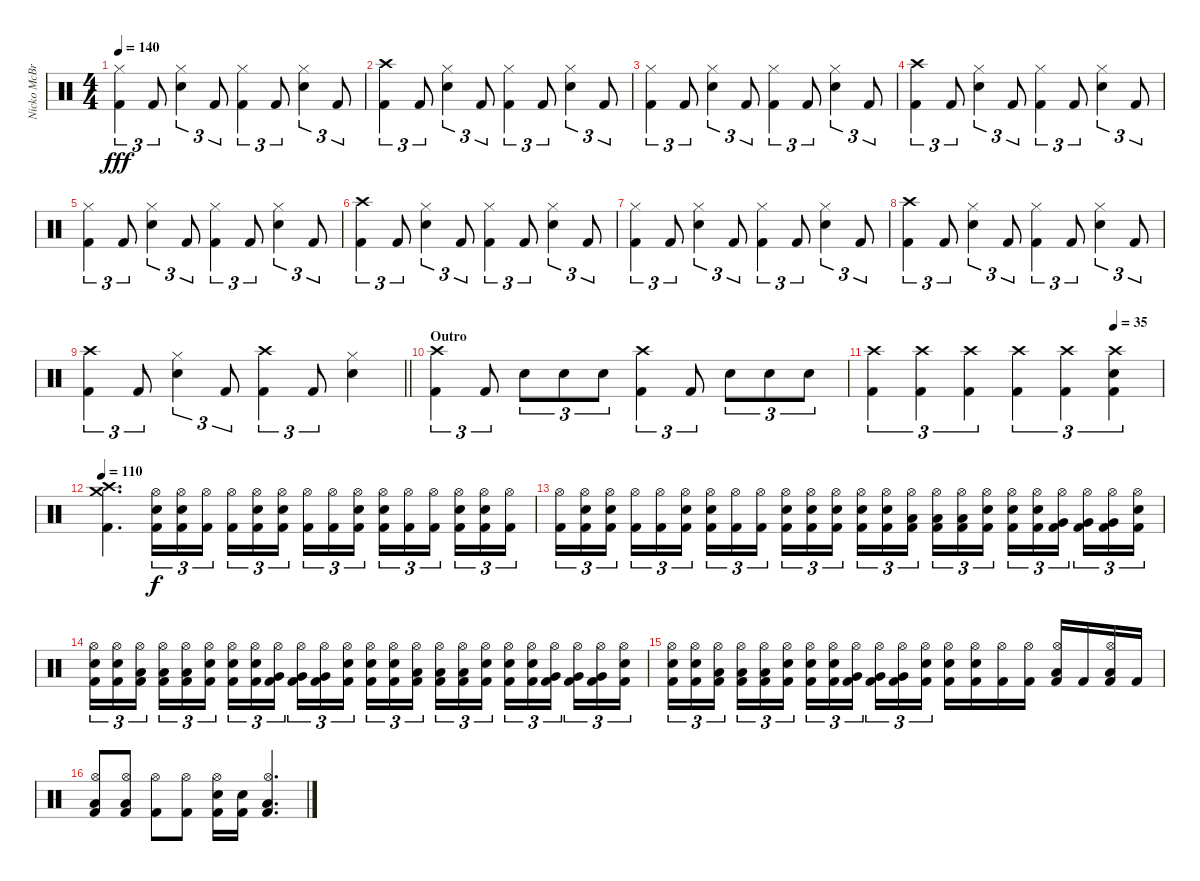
\track ("Nicko McBrain" "Nicko McBr") {instrument percussion}
\staff {score}
\articulation defaults
\ts (4 4)
\tempo 140
\clef neutral
\ks c
("Kick (hit) 2" "Hi-Hat (closed)").4{tu (3 2) dy fff} "Kick (hit) 2".8{tu (3 2)} ("Hi-Hat (closed)" "Snare (hit) 2").4{tu (3 2)} "Kick (hit) 2".8{tu (3 2)} ("Kick (hit) 2" "Hi-Hat (closed)").4{tu (3 2)} "Kick (hit) 2".8{tu (3 2)} ("Hi-Hat (closed)" "Snare (hit) 2").4{tu (3 2)} "Kick (hit) 2".8{tu (3 2)} |
("Crash high (hit)" "Kick (hit) 2").4{tu (3 2)} "Kick (hit) 2".8{tu (3 2)} ("Hi-Hat (closed)" "Snare (hit) 2").4{tu (3 2)} "Kick (hit) 2".8{tu (3 2)} ("Kick (hit) 2" "Hi-Hat (closed)").4{tu (3 2)} "Kick (hit) 2".8{tu (3 2)} ("Hi-Hat (closed)" "Snare (hit) 2").4{tu (3 2)} "Kick (hit) 2".8{tu (3 2)} |
("Kick (hit) 2" "Hi-Hat (closed)").4{tu (3 2)} "Kick (hit) 2".8{tu (3 2)} ("Hi-Hat (closed)" "Snare (hit) 2").4{tu (3 2)} "Kick (hit) 2".8{tu (3 2)} ("Kick (hit) 2" "Hi-Hat (closed)").4{tu (3 2)} "Kick (hit) 2".8{tu (3 2)} ("Hi-Hat (closed)" "Snare (hit) 2").4{tu (3 2)} "Kick (hit) 2".8{tu (3 2)} |
("Crash high (hit)" "Kick (hit) 2").4{tu (3 2)} "Kick (hit) 2".8{tu (3 2)} ("Hi-Hat (closed)" "Snare (hit) 2").4{tu (3 2)} "Kick (hit) 2".8{tu (3 2)} ("Kick (hit) 2" "Hi-Hat (closed)").4{tu (3 2)} "Kick (hit) 2".8{tu (3 2)} ("Hi-Hat (closed)" "Snare (hit) 2").4{tu (3 2)} "Kick (hit) 2".8{tu (3 2)} |
("Kick (hit) 2" "Hi-Hat (closed)").4{tu (3 2)} "Kick (hit) 2".8{tu (3 2)} ("Hi-Hat (closed)" "Snare (hit) 2").4{tu (3 2)} "Kick (hit) 2".8{tu (3 2)} ("Kick (hit) 2" "Hi-Hat (closed)").4{tu (3 2)} "Kick (hit) 2".8{tu (3 2)} ("Hi-Hat (closed)" "Snare (hit) 2").4{tu (3 2)} "Kick (hit) 2".8{tu (3 2)} |
("Crash high (hit)" "Kick (hit) 2").4{tu (3 2)} "Kick (hit) 2".8{tu (3 2)} ("Hi-Hat (closed)" "Snare (hit) 2").4{tu (3 2)} "Kick (hit) 2".8{tu (3 2)} ("Kick (hit) 2" "Hi-Hat (closed)").4{tu (3 2)} "Kick (hit) 2".8{tu (3 2)} ("Hi-Hat (closed)" "Snare (hit) 2").4{tu (3 2)} "Kick (hit) 2".8{tu (3 2)} |
("Kick (hit) 2" "Hi-Hat (closed)").4{tu (3 2)} "Kick (hit) 2".8{tu (3 2)} ("Hi-Hat (closed)" "Snare (hit) 2").4{tu (3 2)} "Kick (hit) 2".8{tu (3 2)} ("Kick (hit) 2" "Hi-Hat (closed)").4{tu (3 2)} "Kick (hit) 2".8{tu (3 2)} ("Hi-Hat (closed)" "Snare (hit) 2").4{tu (3 2)} "Kick (hit) 2".8{tu (3 2)} |
("Crash high (hit)" "Kick (hit) 2").4{tu (3 2)} "Kick (hit) 2".8{tu (3 2)} ("Hi-Hat (closed)" "Snare (hit) 2").4{tu (3 2)} "Kick (hit) 2".8{tu (3 2)} ("Kick (hit) 2" "Hi-Hat (closed)").4{tu (3 2)} "Kick (hit) 2".8{tu (3 2)} ("Hi-Hat (closed)" "Snare (hit) 2").4{tu (3 2)} "Kick (hit) 2".8{tu (3 2)} |
\barLineRight lightlight
("Kick (hit) 2" "Crash high (hit)").4{tu (3 2)} "Kick (hit) 2".8{tu (3 2)} ("Hi-Hat (closed)" "Snare (hit) 2").4{tu (3 2)} "Kick (hit) 2".8{tu (3 2)} ("Kick (hit) 2" "Crash high (hit)").4{tu (3 2)} "Kick (hit) 2".8{tu (3 2)} ("Hi-Hat (closed)" "Snare (hit) 2").4 |
\section ("" "Outro")
("Kick (hit) 2" "Crash high (hit)").4{tu (3 2)} "Kick (hit) 2".8{tu (3 2)} "Snare (hit) 2".8{tu (3 2)} "Snare (hit) 2".8{tu (3 2)} "Snare (hit) 2".8{tu (3 2)} ("Kick (hit) 2" "Crash high (hit)").4{tu (3 2)} "Kick (hit) 2".8{tu (3 2)} "Snare (hit) 2".8{tu (3 2)} "Snare (hit) 2".8{tu (3 2)} "Snare (hit) 2".8{tu (3 2)} |
\tempo (35 0.8333333333333334)
("Kick (hit) 2" "Crash high (hit)").4{tu (3 2)} ("Kick (hit) 2" "Crash high (hit)").4{tu (3 2)} ("Kick (hit) 2" "Crash high (hit)").4{tu (3 2)} ("Kick (hit) 2" "Crash high (hit)").4{tu (3 2)} ("Kick (hit) 2" "Crash high (hit)").4{tu (3 2)} ("Snare (hit) 2" "Crash high (hit)" "Kick (hit) 2").4{tu (3 2)} |
\tempo 110
("Kick (hit) 2" "Crash high (hit)" "Crash medium (hit)").4{d} ("Snare (hit) 2" "Hi-Hat (open)" "Kick (hit) 2").16{tu (3 2) dy f} ("Snare (hit) 2" "Hi-Hat (open)" "Kick (hit) 2").16{tu (3 2)} ("Hi-Hat (open)" "Kick (hit) 2").16{tu (3 2)} ("Hi-Hat (open)" "Kick (hit) 2").16{tu (3 2)} ("Snare (hit) 2" "Hi-Hat (open)" "Kick (hit) 2").16{tu (3 2)} ("Snare (hit) 2" "Hi-Hat (open)" "Kick (hit) 2").16{tu (3 2) beam splitsecondary} ("Hi-Hat (open)" "Kick (hit) 2").16{tu (3 2)} ("Hi-Hat (open)" "Kick (hit) 2").16{tu (3 2)} ("Snare (hit) 2" "Hi-Hat (open)" "Kick (hit) 2").16{tu (3 2)} ("Snare (hit) 2" "Hi-Hat (open)" "Kick (hit) 2").16{tu (3 2)} ("Hi-Hat (open)" "Kick (hit) 2").16{tu (3 2)} ("Hi-Hat (open)" "Kick (hit) 2").16{tu (3 2) beam splitsecondary} ("Snare (hit) 2" "Hi-Hat (open)" "Kick (hit) 2").16{tu (3 2)} ("Snare (hit) 2" "Hi-Hat (open)" "Kick (hit) 2").16{tu (3 2)} ("Hi-Hat (open)" "Kick (hit) 2").16{tu (3 2)} |
("Hi-Hat (open)" "Kick (hit) 2").16{tu (3 2)} ("Snare (hit) 2" "Hi-Hat (open)" "Kick (hit) 2").16{tu (3 2)} ("Snare (hit) 2" "Hi-Hat (open)" "Kick (hit) 2").16{tu (3 2) beam splitsecondary} ("Hi-Hat (open)" "Kick (hit) 2").16{tu (3 2)} ("Hi-Hat (open)" "Kick (hit) 2").16{tu (3 2)} ("Snare (hit) 2" "Hi-Hat (open)" "Kick (hit) 2").16{tu (3 2)} ("Snare (hit) 2" "Hi-Hat (open)" "Kick (hit) 2").16{tu (3 2)} ("Hi-Hat (open)" "Kick (hit) 2").16{tu (3 2)} ("Hi-Hat (open)" "Kick (hit) 2").16{tu (3 2) beam splitsecondary} ("Snare (hit) 2" "Hi-Hat (open)" "Kick (hit) 2").16{tu (3 2)} ("Snare (hit) 2" "Hi-Hat (open)" "Kick (hit) 2").16{tu (3 2)} ("Snare (hit) 2" "Hi-Hat (open)" "Kick (hit) 2").16{tu (3 2)} ("Snare (hit) 2" "Hi-Hat (open)" "Kick (hit) 2").16{tu (3 2)} ("Snare (hit) 2" "Hi-Hat (open)" "Kick (hit) 2").16{tu (3 2)} ("Low Tom (hit)" "Hi-Hat (open)" "Kick (hit) 2").16{tu (3 2) beam splitsecondary} ("Low Tom (hit)" "Hi-Hat (open)" "Kick (hit) 2").16{tu (3 2)} ("Low Tom (hit)" "Hi-Hat (open)" "Kick (hit) 2").16{tu (3 2)} ("Snare (hit) 2" "Hi-Hat (open)" "Kick (hit) 2").16{tu (3 2)} ("Snare (hit) 2" "Hi-Hat (open)" "Kick (hit) 2").16{tu (3 2)} ("Snare (hit) 2" "Hi-Hat (open)" "Kick (hit) 2").16{tu (3 2)} ("Very Low Tom (hit)" "Hi-Hat (open)" "Kick (hit) 2").16{tu (3 2) beam splitsecondary} ("Very Low Tom (hit)" "Hi-Hat (open)" "Kick (hit) 2").16{tu (3 2)} ("Very Low Tom (hit)" "Hi-Hat (open)" "Kick (hit) 2").16{tu (3 2)} ("Snare (hit) 2" "Hi-Hat (open)" "Kick (hit) 2").16{tu (3 2)} |
("Snare (hit) 2" "Hi-Hat (open)" "Kick (hit) 2").16{tu (3 2)} ("Snare (hit) 2" "Hi-Hat (open)" "Kick (hit) 2").16{tu (3 2)} ("Low Tom (hit)" "Hi-Hat (open)" "Kick (hit) 2").16{tu (3 2) beam splitsecondary} ("Low Tom (hit)" "Hi-Hat (open)" "Kick (hit) 2").16{tu (3 2)} ("Low Tom (hit)" "Hi-Hat (open)" "Kick (hit) 2").16{tu (3 2)} ("Snare (hit) 2" "Hi-Hat (open)" "Kick (hit) 2").16{tu (3 2)} ("Snare (hit) 2" "Hi-Hat (open)" "Kick (hit) 2").16{tu (3 2)} ("Snare (hit) 2" "Hi-Hat (open)" "Kick (hit) 2").16{tu (3 2)} ("Very Low Tom (hit)" "Hi-Hat (open)" "Kick (hit) 2").16{tu (3 2) beam splitsecondary} ("Very Low Tom (hit)" "Hi-Hat (open)" "Kick (hit) 2").16{tu (3 2)} ("Very Low Tom (hit)" "Hi-Hat (open)" "Kick (hit) 2").16{tu (3 2)} ("Snare (hit) 2" "Hi-Hat (open)" "Kick (hit) 2").16{tu (3 2)} ("Snare (hit) 2" "Hi-Hat (open)" "Kick (hit) 2").16{tu (3 2)} ("Snare (hit) 2" "Hi-Hat (open)" "Kick (hit) 2").16{tu (3 2)} ("Low Tom (hit)" "Hi-Hat (open)" "Kick (hit) 2").16{tu (3 2) beam splitsecondary} ("Low Tom (hit)" "Hi-Hat (open)" "Kick (hit) 2").16{tu (3 2)} ("Low Tom (hit)" "Hi-Hat (open)" "Kick (hit) 2").16{tu (3 2)} ("Snare (hit) 2" "Hi-Hat (open)" "Kick (hit) 2").16{tu (3 2)} ("Snare (hit) 2" "Hi-Hat (open)" "Kick (hit) 2").16{tu (3 2)} ("Snare (hit) 2" "Hi-Hat (open)" "Kick (hit) 2").16{tu (3 2)} ("Very Low Tom (hit)" "Hi-Hat (open)" "Kick (hit) 2").16{tu (3 2) beam splitsecondary} ("Very Low Tom (hit)" "Hi-Hat (open)" "Kick (hit) 2").16{tu (3 2)} ("Very Low Tom (hit)" "Hi-Hat (open)" "Kick (hit) 2").16{tu (3 2)} ("Snare (hit) 2" "Hi-Hat (open)" "Kick (hit) 2").16{tu (3 2)} |
("Snare (hit) 2" "Hi-Hat (open)" "Kick (hit) 2").16{tu (3 2)} ("Snare (hit) 2" "Hi-Hat (open)" "Kick (hit) 2").16{tu (3 2)} ("Low Floor Tom (hit)" "Hi-Hat (open)" "Kick (hit) 2").16{tu (3 2) beam splitsecondary} ("Low Floor Tom (hit)" "Hi-Hat (open)" "Kick (hit) 2").16{tu (3 2)} ("Low Floor Tom (hit)" "Hi-Hat (open)" "Kick (hit) 2").16{tu (3 2)} ("Snare (hit) 2" "Hi-Hat (open)" "Kick (hit) 2").16{tu (3 2)} ("Snare (hit) 2" "Hi-Hat (open)" "Kick (hit) 2").16{tu (3 2)} ("Snare (hit) 2" "Hi-Hat (open)" "Kick (hit) 2").16{tu (3 2)} ("Very Low Tom (hit)" "Hi-Hat (open)" "Kick (hit) 2").16{tu (3 2) beam splitsecondary} ("Very Low Tom (hit)" "Hi-Hat (open)" "Kick (hit) 2").16{tu (3 2)} ("Very Low Tom (hit)" "Hi-Hat (open)" "Kick (hit) 2").16{tu (3 2)} ("Snare (hit) 2" "Hi-Hat (open)" "Kick (hit) 2").16{tu (3 2)} ("Snare (hit) 2" "Hi-Hat (open)" "Kick (hit) 2").16 ("Snare (hit) 2" "Hi-Hat (open)" "Kick (hit) 2").16 ("Hi-Hat (open)" "Kick (hit) 2").16 ("Hi-Hat (open)" "Kick (hit) 2").16 ("Low Floor Tom (hit)" "Hi-Hat (open)" "Kick (hit) 2").16 "Kick (hit) 2".16 ("Low Floor Tom (hit)" "Hi-Hat (open)" "Kick (hit) 2").16 "Kick (hit) 2".16 |
("Low Floor Tom (hit)" "Hi-Hat (open)" "Kick (hit) 2").8 ("Low Floor Tom (hit)" "Hi-Hat (open)" "Kick (hit) 2").8 ("Hi-Hat (open)" "Kick (hit) 2").8 ("Hi-Hat (open)" "Kick (hit) 2").8 ("Snare (hit) 2" "Hi-Hat (open)" "Kick (hit) 2").16 ("Snare (hit) 2" "Kick (hit) 2").16 ("Low Floor Tom (hit)" "Hi-Hat (open)" "Kick (hit) 2").4{d}
